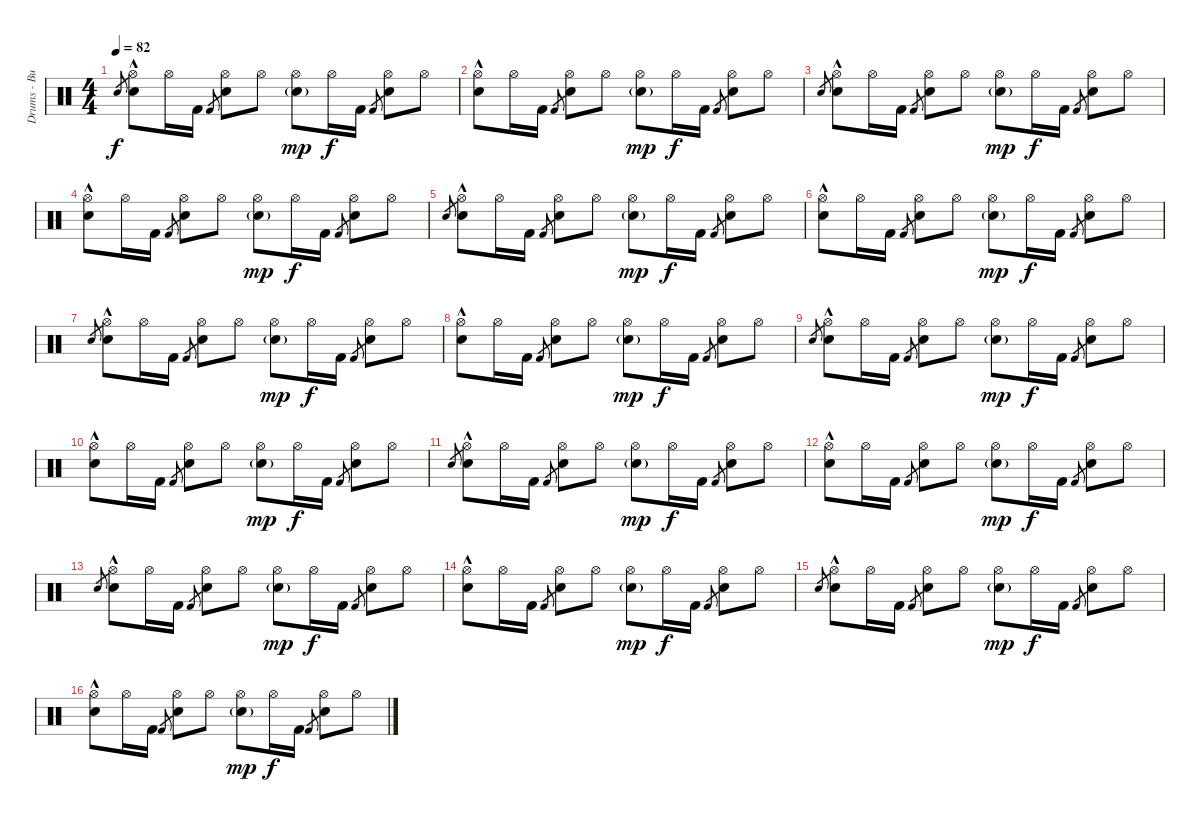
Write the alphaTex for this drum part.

\track ("Drums - Buddy" "Drums - Bu") {instrument percussion}
\staff {score}
\articulation defaults
\ts (4 4)
\tempo 82
\clef neutral
\ks c "Electric Snare (hit)".8{gr dy f}
("Electric Snare (hit)" "Hi-Hat (open)"{hac}).8 "Hi-Hat (open)".16 "Kick (hit) 2".16 "Kick (hit) 2".8{gr} ("Electric Snare (hit)" "Hi-Hat (open)").8 "Hi-Hat (open)".8 ("Electric Snare (hit)"{g} "Hi-Hat (open)").8{dy mp} "Hi-Hat (open)".16{dy f} "Kick (hit) 2".16 "Kick (hit) 2".8{gr} ("Electric Snare (hit)" "Hi-Hat (open)").8 "Hi-Hat (open)".8 |
("Electric Snare (hit)" "Hi-Hat (open)"{hac}).8 "Hi-Hat (open)".16 "Kick (hit) 2".16 "Kick (hit) 2".8{gr} ("Electric Snare (hit)" "Hi-Hat (open)").8 "Hi-Hat (open)".8 ("Electric Snare (hit)"{g} "Hi-Hat (open)").8{dy mp} "Hi-Hat (open)".16{dy f} "Kick (hit) 2".16 "Kick (hit) 2".8{gr} ("Electric Snare (hit)" "Hi-Hat (open)").8 "Hi-Hat (open)".8 |
"Electric Snare (hit)".8{gr} ("Electric Snare (hit)" "Hi-Hat (open)"{hac}).8 "Hi-Hat (open)".16 "Kick (hit) 2".16 "Kick (hit) 2".8{gr} ("Electric Snare (hit)" "Hi-Hat (open)").8 "Hi-Hat (open)".8 ("Electric Snare (hit)"{g} "Hi-Hat (open)").8{dy mp} "Hi-Hat (open)".16{dy f} "Kick (hit) 2".16 "Kick (hit) 2".8{gr} ("Electric Snare (hit)" "Hi-Hat (open)").8 "Hi-Hat (open)".8 |
("Electric Snare (hit)" "Hi-Hat (open)"{hac}).8 "Hi-Hat (open)".16 "Kick (hit) 2".16 "Kick (hit) 2".8{gr} ("Electric Snare (hit)" "Hi-Hat (open)").8 "Hi-Hat (open)".8 ("Electric Snare (hit)"{g} "Hi-Hat (open)").8{dy mp} "Hi-Hat (open)".16{dy f} "Kick (hit) 2".16 "Kick (hit) 2".8{gr} ("Electric Snare (hit)" "Hi-Hat (open)").8 "Hi-Hat (open)".8 |
"Electric Snare (hit)".8{gr} ("Electric Snare (hit)" "Hi-Hat (open)"{hac}).8 "Hi-Hat (open)".16 "Kick (hit) 2".16 "Kick (hit) 2".8{gr} ("Electric Snare (hit)" "Hi-Hat (open)").8 "Hi-Hat (open)".8 ("Electric Snare (hit)"{g} "Hi-Hat (open)").8{dy mp} "Hi-Hat (open)".16{dy f} "Kick (hit) 2".16 "Kick (hit) 2".8{gr} ("Electric Snare (hit)" "Hi-Hat (open)").8 "Hi-Hat (open)".8 |
("Electric Snare (hit)" "Hi-Hat (open)"{hac}).8 "Hi-Hat (open)".16 "Kick (hit) 2".16 "Kick (hit) 2".8{gr} ("Electric Snare (hit)" "Hi-Hat (open)").8 "Hi-Hat (open)".8 ("Electric Snare (hit)"{g} "Hi-Hat (open)").8{dy mp} "Hi-Hat (open)".16{dy f} "Kick (hit) 2".16 "Kick (hit) 2".8{gr} ("Electric Snare (hit)" "Hi-Hat (open)").8 "Hi-Hat (open)".8 |
"Electric Snare (hit)".8{gr} ("Electric Snare (hit)" "Hi-Hat (open)"{hac}).8 "Hi-Hat (open)".16 "Kick (hit) 2".16 "Kick (hit) 2".8{gr} ("Electric Snare (hit)" "Hi-Hat (open)").8 "Hi-Hat (open)".8 ("Electric Snare (hit)"{g} "Hi-Hat (open)").8{dy mp} "Hi-Hat (open)".16{dy f} "Kick (hit) 2".16 "Kick (hit) 2".8{gr} ("Electric Snare (hit)" "Hi-Hat (open)").8 "Hi-Hat (open)".8 |
("Electric Snare (hit)" "Hi-Hat (open)"{hac}).8 "Hi-Hat (open)".16 "Kick (hit) 2".16 "Kick (hit) 2".8{gr} ("Electric Snare (hit)" "Hi-Hat (open)").8 "Hi-Hat (open)".8 ("Electric Snare (hit)"{g} "Hi-Hat (open)").8{dy mp} "Hi-Hat (open)".16{dy f} "Kick (hit) 2".16 "Kick (hit) 2".8{gr} ("Electric Snare (hit)" "Hi-Hat (open)").8 "Hi-Hat (open)".8 |
"Electric Snare (hit)".8{gr} ("Electric Snare (hit)" "Hi-Hat (open)"{hac}).8 "Hi-Hat (open)".16 "Kick (hit) 2".16 "Kick (hit) 2".8{gr} ("Electric Snare (hit)" "Hi-Hat (open)").8 "Hi-Hat (open)".8 ("Electric Snare (hit)"{g} "Hi-Hat (open)").8{dy mp} "Hi-Hat (open)".16{dy f} "Kick (hit) 2".16 "Kick (hit) 2".8{gr} ("Electric Snare (hit)" "Hi-Hat (open)").8 "Hi-Hat (open)".8 |
("Electric Snare (hit)" "Hi-Hat (open)"{hac}).8 "Hi-Hat (open)".16 "Kick (hit) 2".16 "Kick (hit) 2".8{gr} ("Electric Snare (hit)" "Hi-Hat (open)").8 "Hi-Hat (open)".8 ("Electric Snare (hit)"{g} "Hi-Hat (open)").8{dy mp} "Hi-Hat (open)".16{dy f} "Kick (hit) 2".16 "Kick (hit) 2".8{gr} ("Electric Snare (hit)" "Hi-Hat (open)").8 "Hi-Hat (open)".8 |
"Electric Snare (hit)".8{gr} ("Electric Snare (hit)" "Hi-Hat (open)"{hac}).8 "Hi-Hat (open)".16 "Kick (hit) 2".16 "Kick (hit) 2".8{gr} ("Electric Snare (hit)" "Hi-Hat (open)").8 "Hi-Hat (open)".8 ("Electric Snare (hit)"{g} "Hi-Hat (open)").8{dy mp} "Hi-Hat (open)".16{dy f} "Kick (hit) 2".16 "Kick (hit) 2".8{gr} ("Electric Snare (hit)" "Hi-Hat (open)").8 "Hi-Hat (open)".8 |
("Electric Snare (hit)" "Hi-Hat (open)"{hac}).8 "Hi-Hat (open)".16 "Kick (hit) 2".16 "Kick (hit) 2".8{gr} ("Electric Snare (hit)" "Hi-Hat (open)").8 "Hi-Hat (open)".8 ("Electric Snare (hit)"{g} "Hi-Hat (open)").8{dy mp} "Hi-Hat (open)".16{dy f} "Kick (hit) 2".16 "Kick (hit) 2".8{gr} ("Electric Snare (hit)" "Hi-Hat (open)").8 "Hi-Hat (open)".8 |
"Electric Snare (hit)".8{gr} ("Electric Snare (hit)" "Hi-Hat (open)"{hac}).8 "Hi-Hat (open)".16 "Kick (hit) 2".16 "Kick (hit) 2".8{gr} ("Electric Snare (hit)" "Hi-Hat (open)").8 "Hi-Hat (open)".8 ("Electric Snare (hit)"{g} "Hi-Hat (open)").8{dy mp} "Hi-Hat (open)".16{dy f} "Kick (hit) 2".16 "Kick (hit) 2".8{gr} ("Electric Snare (hit)" "Hi-Hat (open)").8 "Hi-Hat (open)".8 |
("Electric Snare (hit)" "Hi-Hat (open)"{hac}).8 "Hi-Hat (open)".16 "Kick (hit) 2".16 "Kick (hit) 2".8{gr} ("Electric Snare (hit)" "Hi-Hat (open)").8 "Hi-Hat (open)".8 ("Electric Snare (hit)"{g} "Hi-Hat (open)").8{dy mp} "Hi-Hat (open)".16{dy f} "Kick (hit) 2".16 "Kick (hit) 2".8{gr} ("Electric Snare (hit)" "Hi-Hat (open)").8 "Hi-Hat (open)".8 |
"Electric Snare (hit)".8{gr} ("Electric Snare (hit)" "Hi-Hat (open)"{hac}).8 "Hi-Hat (open)".16 "Kick (hit) 2".16 "Kick (hit) 2".8{gr} ("Electric Snare (hit)" "Hi-Hat (open)").8 "Hi-Hat (open)".8 ("Electric Snare (hit)"{g} "Hi-Hat (open)").8{dy mp} "Hi-Hat (open)".16{dy f} "Kick (hit) 2".16 "Kick (hit) 2".8{gr} ("Electric Snare (hit)" "Hi-Hat (open)").8 "Hi-Hat (open)".8 |
("Electric Snare (hit)" "Hi-Hat (open)"{hac}).8 "Hi-Hat (open)".16 "Kick (hit) 2".16 "Kick (hit) 2".8{gr} ("Electric Snare (hit)" "Hi-Hat (open)").8 "Hi-Hat (open)".8 ("Electric Snare (hit)"{g} "Hi-Hat (open)").8{dy mp} "Hi-Hat (open)".16{dy f} "Kick (hit) 2".16 "Kick (hit) 2".8{gr} ("Electric Snare (hit)" "Hi-Hat (open)").8 "Hi-Hat (open)".8
